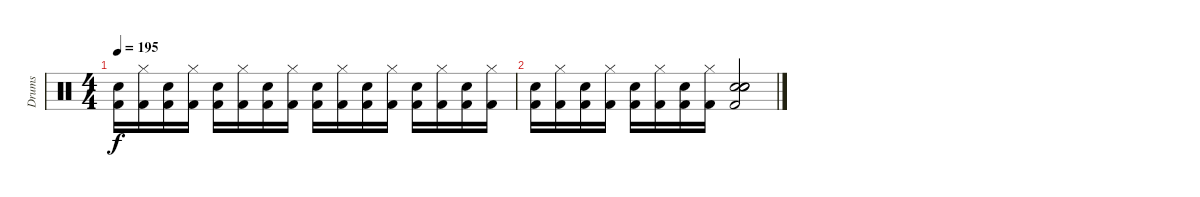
\track ("Drums" "Drums") {instrument percussion}
\staff {score}
\articulation defaults
\ts (4 4)
\tempo 195
\clef neutral
\ks c
("Kick (hit) 2" "Snare (hit) 2").16{dy f} ("Hi-Hat (closed)" "Kick (hit) 2").16 ("Kick (hit) 2" "Snare (hit) 2").16 ("Hi-Hat (closed)" "Kick (hit) 2").16 ("Kick (hit) 2" "Snare (hit) 2").16 ("Hi-Hat (closed)" "Kick (hit) 2").16 ("Kick (hit) 2" "Snare (hit) 2").16 ("Hi-Hat (closed)" "Kick (hit) 2").16 ("Kick (hit) 2" "Snare (hit) 2").16 ("Hi-Hat (closed)" "Kick (hit) 2").16 ("Kick (hit) 2" "Snare (hit) 2").16 ("Hi-Hat (closed)" "Kick (hit) 2").16 ("Kick (hit) 2" "Snare (hit) 2").16 ("Hi-Hat (closed)" "Kick (hit) 2").16 ("Kick (hit) 2" "Snare (hit) 2").16 ("Hi-Hat (closed)" "Kick (hit) 2").16 |
("Kick (hit) 2" "Snare (hit) 2").16 ("Hi-Hat (closed)" "Kick (hit) 2").16 ("Kick (hit) 2" "Snare (hit) 2").16 ("Hi-Hat (closed)" "Kick (hit) 2").16 ("Kick (hit) 2" "Snare (hit) 2").16 ("Hi-Hat (closed)" "Kick (hit) 2").16 ("Kick (hit) 2" "Snare (hit) 2").16 ("Hi-Hat (closed)" "Kick (hit) 2").16 ("Snare (hit) 2" "Snare (hit) 2" "Kick (hit) 2" "Snare (hit) 2").2
